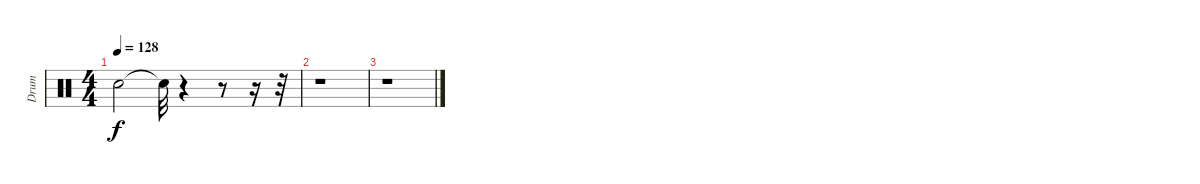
\track ("Drum" "Drum") {instrument percussion}
\staff {score}
\articulation defaults
\ts (4 4)
\tempo 128
\clef neutral
\ks c "Snare (hit)"{t}.2{dy f} "Snare (hit)"{t}.32
r.4 r.8 r.16 r.32 |
r.1 |
r.1
